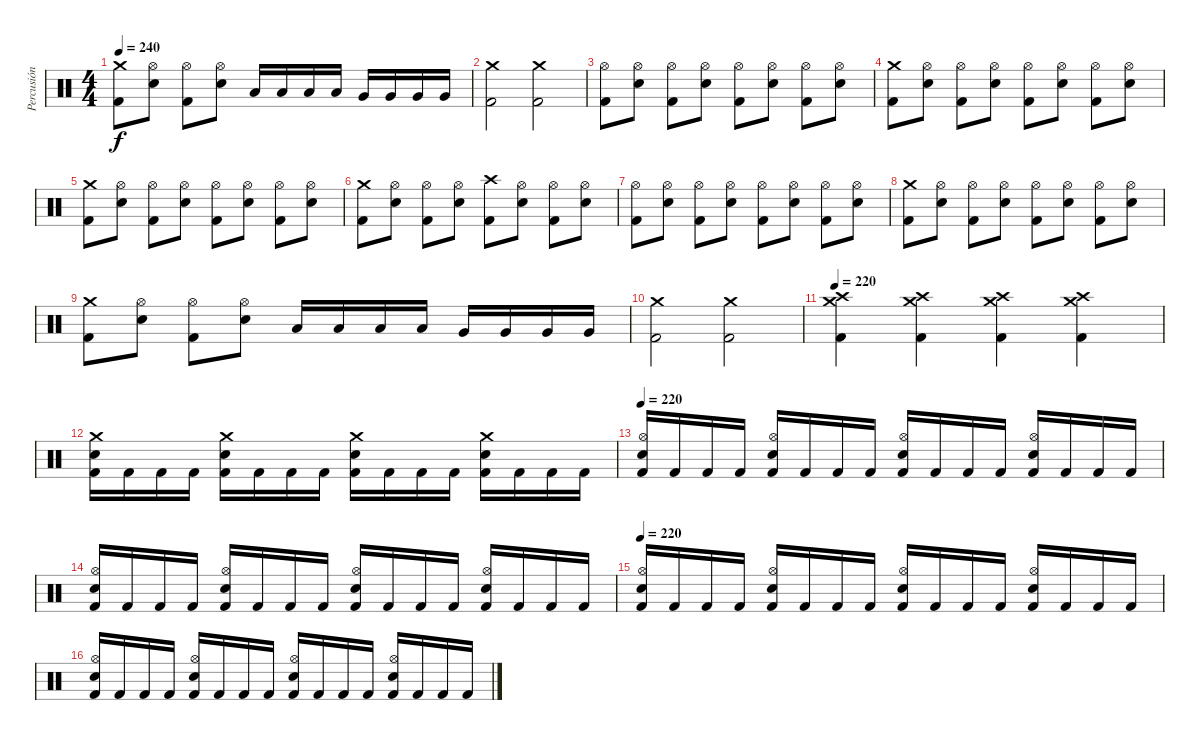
\track ("Percusión" "Percusión") {instrument percussion}
\staff {score}
\articulation defaults
\ts (4 4)
\tempo 240
\clef neutral
\ks c
("Crash medium (hit)" "Kick (hit) 2").8{dy f} ("Hi-Hat (open)" "Electric Snare (hit)").8 ("Hi-Hat (open)" "Kick (hit) 2").8 ("Hi-Hat (open)" "Electric Snare (hit)").8 "Low Tom (hit)".16 "Low Tom (hit)".16 "Low Tom (hit)".16 "Low Tom (hit)".16 "Very Low Tom (hit)".16 "Very Low Tom (hit)".16 "Very Low Tom (hit)".16 "Very Low Tom (hit)".16 |
("Crash medium (hit)" "Kick (hit) 2").2 ("Crash medium (hit)" "Kick (hit) 2").2 |
("Hi-Hat (open)" "Kick (hit) 2").8 ("Hi-Hat (open)" "Electric Snare (hit)").8 ("Hi-Hat (open)" "Kick (hit) 2").8 ("Hi-Hat (open)" "Electric Snare (hit)").8 ("Hi-Hat (open)" "Kick (hit) 2").8 ("Hi-Hat (open)" "Electric Snare (hit)").8 ("Hi-Hat (open)" "Kick (hit) 2").8 ("Hi-Hat (open)" "Electric Snare (hit)").8 |
("Crash medium (hit)" "Kick (hit) 2").8 ("Hi-Hat (open)" "Electric Snare (hit)").8 ("Hi-Hat (open)" "Kick (hit) 2").8 ("Hi-Hat (open)" "Electric Snare (hit)").8 ("Hi-Hat (open)" "Kick (hit) 2").8 ("Hi-Hat (open)" "Electric Snare (hit)").8 ("Hi-Hat (open)" "Kick (hit) 2").8 ("Hi-Hat (open)" "Electric Snare (hit)").8 |
("Crash medium (hit)" "Kick (hit) 2").8 ("Hi-Hat (open)" "Electric Snare (hit)").8 ("Hi-Hat (open)" "Kick (hit) 2").8 ("Hi-Hat (open)" "Electric Snare (hit)").8 ("Hi-Hat (open)" "Kick (hit) 2").8 ("Hi-Hat (open)" "Electric Snare (hit)").8 ("Hi-Hat (open)" "Kick (hit) 2").8 ("Hi-Hat (open)" "Electric Snare (hit)").8 |
("Crash medium (hit)" "Kick (hit) 2").8 ("Hi-Hat (open)" "Electric Snare (hit)").8 ("Hi-Hat (open)" "Kick (hit) 2").8 ("Hi-Hat (open)" "Electric Snare (hit)").8 ("Crash high (hit)" "Kick (hit) 2").8 ("Hi-Hat (open)" "Electric Snare (hit)").8 ("Hi-Hat (open)" "Kick (hit) 2").8 ("Hi-Hat (open)" "Electric Snare (hit)").8 |
("Hi-Hat (open)" "Kick (hit) 2").8 ("Hi-Hat (open)" "Electric Snare (hit)").8 ("Hi-Hat (open)" "Kick (hit) 2").8 ("Hi-Hat (open)" "Electric Snare (hit)").8 ("Hi-Hat (open)" "Kick (hit) 2").8 ("Hi-Hat (open)" "Electric Snare (hit)").8 ("Hi-Hat (open)" "Kick (hit) 2").8 ("Hi-Hat (open)" "Electric Snare (hit)").8 |
("Crash medium (hit)" "Kick (hit) 2").8 ("Hi-Hat (open)" "Electric Snare (hit)").8 ("Hi-Hat (open)" "Kick (hit) 2").8 ("Hi-Hat (open)" "Electric Snare (hit)").8 ("Hi-Hat (open)" "Kick (hit) 2").8 ("Hi-Hat (open)" "Electric Snare (hit)").8 ("Hi-Hat (open)" "Kick (hit) 2").8 ("Hi-Hat (open)" "Electric Snare (hit)").8 |
("Crash medium (hit)" "Kick (hit) 2").8 ("Hi-Hat (open)" "Electric Snare (hit)").8 ("Hi-Hat (open)" "Kick (hit) 2").8 ("Hi-Hat (open)" "Electric Snare (hit)").8 "Low Tom (hit)".16 "Low Tom (hit)".16 "Low Tom (hit)".16 "Low Tom (hit)".16 "Very Low Tom (hit)".16 "Very Low Tom (hit)".16 "Very Low Tom (hit)".16 "Very Low Tom (hit)".16 |
("Crash medium (hit)" "Kick (hit) 2").2 ("Crash medium (hit)" "Kick (hit) 2").2 |
\tempo 200
\tempo 220
("Crash high (hit)" "Crash medium (hit)" "Kick (hit) 2").4 ("Crash high (hit)" "Crash medium (hit)" "Kick (hit) 2").4 ("Crash high (hit)" "Crash medium (hit)" "Kick (hit) 2").4 ("Crash high (hit)" "Crash medium (hit)" "Kick (hit) 2").4 |
("Crash medium (hit)" "Electric Snare (hit)" "Kick (hit) 2").16 "Kick (hit) 2".16 "Kick (hit) 2".16 "Kick (hit) 2".16 ("Crash medium (hit)" "Electric Snare (hit)" "Kick (hit) 2").16 "Kick (hit) 2".16 "Kick (hit) 2".16 "Kick (hit) 2".16 ("Crash medium (hit)" "Electric Snare (hit)" "Kick (hit) 2").16 "Kick (hit) 2".16 "Kick (hit) 2".16 "Kick (hit) 2".16 ("Crash medium (hit)" "Electric Snare (hit)" "Kick (hit) 2").16 "Kick (hit) 2".16 "Kick (hit) 2".16 "Kick (hit) 2".16 |
\tempo 200
\tempo 220
("Hi-Hat (open)" "Electric Snare (hit)" "Kick (hit) 2").16 "Kick (hit) 2".16 "Kick (hit) 2".16 "Kick (hit) 2".16 ("Hi-Hat (open)" "Electric Snare (hit)" "Kick (hit) 2").16 "Kick (hit) 2".16 "Kick (hit) 2".16 "Kick (hit) 2".16 ("Hi-Hat (open)" "Electric Snare (hit)" "Kick (hit) 2").16 "Kick (hit) 2".16 "Kick (hit) 2".16 "Kick (hit) 2".16 ("Hi-Hat (open)" "Electric Snare (hit)" "Kick (hit) 2").16 "Kick (hit) 2".16 "Kick (hit) 2".16 "Kick (hit) 2".16 |
("Hi-Hat (open)" "Electric Snare (hit)" "Kick (hit) 2").16 "Kick (hit) 2".16 "Kick (hit) 2".16 "Kick (hit) 2".16 ("Hi-Hat (open)" "Electric Snare (hit)" "Kick (hit) 2").16 "Kick (hit) 2".16 "Kick (hit) 2".16 "Kick (hit) 2".16 ("Hi-Hat (open)" "Electric Snare (hit)" "Kick (hit) 2").16 "Kick (hit) 2".16 "Kick (hit) 2".16 "Kick (hit) 2".16 ("Hi-Hat (open)" "Electric Snare (hit)" "Kick (hit) 2").16 "Kick (hit) 2".16 "Kick (hit) 2".16 "Kick (hit) 2".16 |
\tempo 200
\tempo 220
("Hi-Hat (open)" "Electric Snare (hit)" "Kick (hit) 2").16 "Kick (hit) 2".16 "Kick (hit) 2".16 "Kick (hit) 2".16 ("Hi-Hat (open)" "Electric Snare (hit)" "Kick (hit) 2").16 "Kick (hit) 2".16 "Kick (hit) 2".16 "Kick (hit) 2".16 ("Hi-Hat (open)" "Electric Snare (hit)" "Kick (hit) 2").16 "Kick (hit) 2".16 "Kick (hit) 2".16 "Kick (hit) 2".16 ("Hi-Hat (open)" "Electric Snare (hit)" "Kick (hit) 2").16 "Kick (hit) 2".16 "Kick (hit) 2".16 "Kick (hit) 2".16 |
("Hi-Hat (open)" "Electric Snare (hit)" "Kick (hit) 2").16 "Kick (hit) 2".16 "Kick (hit) 2".16 "Kick (hit) 2".16 ("Hi-Hat (open)" "Electric Snare (hit)" "Kick (hit) 2").16 "Kick (hit) 2".16 "Kick (hit) 2".16 "Kick (hit) 2".16 ("Hi-Hat (open)" "Electric Snare (hit)" "Kick (hit) 2").16 "Kick (hit) 2".16 "Kick (hit) 2".16 "Kick (hit) 2".16 ("Hi-Hat (open)" "Electric Snare (hit)" "Kick (hit) 2").16 "Kick (hit) 2".16 "Kick (hit) 2".16 "Kick (hit) 2".16
